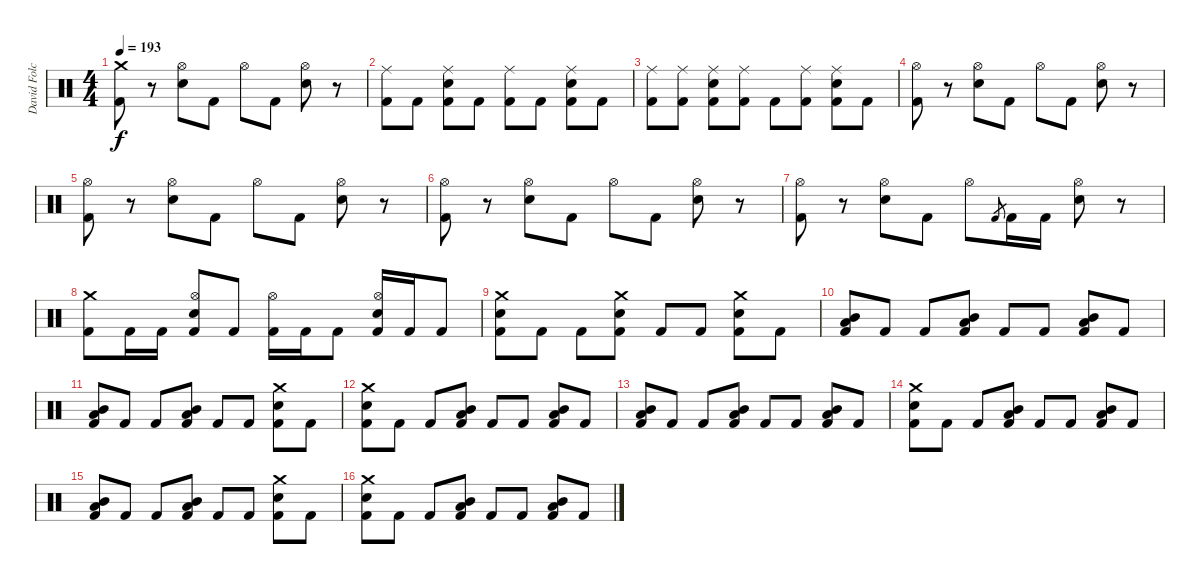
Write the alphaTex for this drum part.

\track ("David Folchitto (Drums)" "David Folc") {instrument percussion}
\staff {score}
\articulation defaults
\ts (4 4)
\tempo 193
\clef neutral
\ks c
("Crash medium (hit)" "Kick (hit) 2").8{dy f} r.8 ("Hi-Hat (open)" "Snare (hit) 2").8 "Kick (hit) 2".8 "Hi-Hat (open)".8 "Kick (hit) 2".8 ("Hi-Hat (open)" "Snare (hit) 2").8 r.8 |
("Ride (middle)" "Kick (hit) 2").8 "Kick (hit) 2".8 ("Ride (middle)" "Snare (hit) 2" "Kick (hit) 2").8 "Kick (hit) 2".8 ("Ride (middle)" "Kick (hit) 2").8 "Kick (hit) 2".8 ("Ride (middle)" "Snare (hit) 2" "Kick (hit) 2").8 "Kick (hit) 2".8 |
("Ride (middle)" "Kick (hit) 2").8 ("Ride (middle)" "Kick (hit) 2").8 ("Ride (middle)" "Snare (hit) 2" "Kick (hit) 2").8 ("Ride (middle)" "Kick (hit) 2").8 "Kick (hit) 2".8 ("Ride (middle)" "Kick (hit) 2").8 ("Ride (middle)" "Snare (hit) 2" "Kick (hit) 2").8 "Kick (hit) 2".8 |
("Hi-Hat (open)" "Kick (hit) 2").8 r.8 ("Hi-Hat (open)" "Snare (hit) 2").8 "Kick (hit) 2".8 "Hi-Hat (open)".8 "Kick (hit) 2".8 ("Hi-Hat (open)" "Snare (hit) 2").8 r.8 |
("Hi-Hat (open)" "Kick (hit) 2").8 r.8 ("Hi-Hat (open)" "Snare (hit) 2").8 "Kick (hit) 2".8 "Hi-Hat (open)".8 "Kick (hit) 2".8 ("Hi-Hat (open)" "Snare (hit) 2").8 r.8 |
("Hi-Hat (open)" "Kick (hit) 2").8 r.8 ("Hi-Hat (open)" "Snare (hit) 2").8 "Kick (hit) 2".8 "Hi-Hat (open)".8 "Kick (hit) 2".8 ("Hi-Hat (open)" "Snare (hit) 2").8 r.8 |
("Hi-Hat (open)" "Kick (hit) 2").8 r.8 ("Hi-Hat (open)" "Snare (hit) 2").8 "Kick (hit) 2".8 "Hi-Hat (open)".8 "Kick (hit) 2".8{gr} "Kick (hit) 2".16 "Kick (hit) 2".16 ("Hi-Hat (open)" "Snare (hit) 2").8 r.8 |
("Crash medium (hit)" "Kick (hit) 2").8 "Kick (hit) 2".16 "Kick (hit) 2".16 ("Hi-Hat (open)" "Snare (hit) 2" "Kick (hit) 2").8 "Kick (hit) 2".8 ("Hi-Hat (open)" "Kick (hit) 2").16 "Kick (hit) 2".16 "Kick (hit) 2".8 ("Hi-Hat (open)" "Snare (hit) 2" "Kick (hit) 2").16 "Kick (hit) 2".16 "Kick (hit) 2".8 |
("Crash medium (hit)" "Snare (hit) 2" "Kick (hit) 2").8 "Kick (hit) 2".8 "Kick (hit) 2".8 ("Crash medium (hit)" "Snare (hit) 2" "Kick (hit) 2").8 "Kick (hit) 2".8 "Kick (hit) 2".8 ("Crash medium (hit)" "Snare (hit) 2" "Kick (hit) 2").8 "Kick (hit) 2".8 |
("Mid Tom (hit)" "Low Tom (hit)" "Kick (hit) 2").8 "Kick (hit) 2".8 "Kick (hit) 2".8 ("Mid Tom (hit)" "Low Tom (hit)" "Kick (hit) 2").8 "Kick (hit) 2".8 "Kick (hit) 2".8 ("Mid Tom (hit)" "Low Tom (hit)" "Kick (hit) 2").8 "Kick (hit) 2".8 |
("Mid Tom (hit)" "Low Tom (hit)" "Kick (hit) 2").8 "Kick (hit) 2".8 "Kick (hit) 2".8 ("Mid Tom (hit)" "Low Tom (hit)" "Kick (hit) 2").8 "Kick (hit) 2".8 "Kick (hit) 2".8 ("Crash medium (hit)" "Snare (hit) 2" "Kick (hit) 2").8 "Kick (hit) 2".8 |
("Crash medium (hit)" "Snare (hit) 2" "Kick (hit) 2").8 "Kick (hit) 2".8 "Kick (hit) 2".8 ("Mid Tom (hit)" "Low Tom (hit)" "Kick (hit) 2").8 "Kick (hit) 2".8 "Kick (hit) 2".8 ("Mid Tom (hit)" "Low Tom (hit)" "Kick (hit) 2").8 "Kick (hit) 2".8 |
("Mid Tom (hit)" "Low Tom (hit)" "Kick (hit) 2").8 "Kick (hit) 2".8 "Kick (hit) 2".8 ("Mid Tom (hit)" "Low Tom (hit)" "Kick (hit) 2").8 "Kick (hit) 2".8 "Kick (hit) 2".8 ("Mid Tom (hit)" "Low Tom (hit)" "Kick (hit) 2").8 "Kick (hit) 2".8 |
("Crash medium (hit)" "Snare (hit) 2" "Kick (hit) 2").8 "Kick (hit) 2".8 "Kick (hit) 2".8 ("Mid Tom (hit)" "Low Tom (hit)" "Kick (hit) 2").8 "Kick (hit) 2".8 "Kick (hit) 2".8 ("Mid Tom (hit)" "Low Tom (hit)" "Kick (hit) 2").8 "Kick (hit) 2".8 |
("Mid Tom (hit)" "Low Tom (hit)" "Kick (hit) 2").8 "Kick (hit) 2".8 "Kick (hit) 2".8 ("Mid Tom (hit)" "Low Tom (hit)" "Kick (hit) 2").8 "Kick (hit) 2".8 "Kick (hit) 2".8 ("Crash medium (hit)" "Snare (hit) 2" "Kick (hit) 2").8 "Kick (hit) 2".8 |
("Crash medium (hit)" "Snare (hit) 2" "Kick (hit) 2").8 "Kick (hit) 2".8 "Kick (hit) 2".8 ("Mid Tom (hit)" "Low Tom (hit)" "Kick (hit) 2").8 "Kick (hit) 2".8 "Kick (hit) 2".8 ("Mid Tom (hit)" "Low Tom (hit)" "Kick (hit) 2").8 "Kick (hit) 2".8
